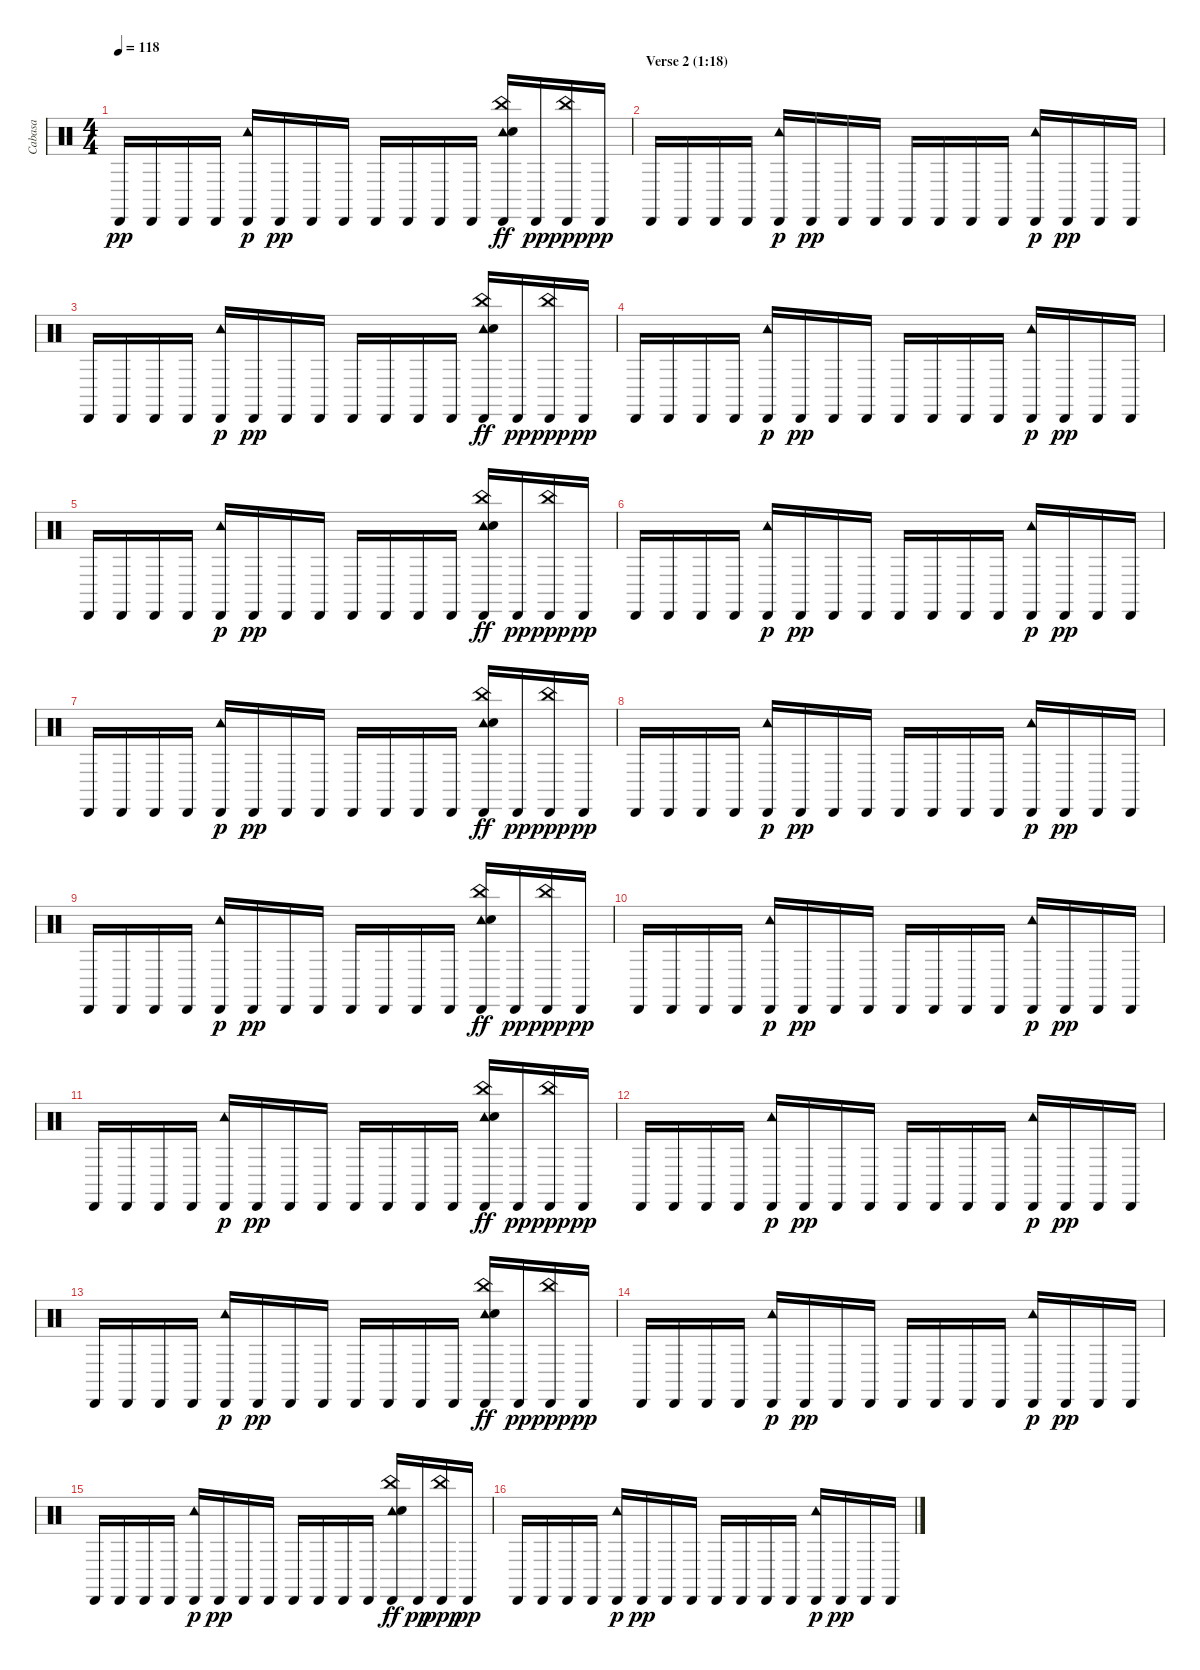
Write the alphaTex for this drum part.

\track ("Cabasa" "Cabasa") {instrument percussion}
\staff {score}
\articulation defaults
\ts (4 4)
\tempo 118
\clef neutral
\ks c "Cabasa (hit)".16{dy pp} "Cabasa (hit)".16 "Cabasa (hit)".16 "Cabasa (hit)".16
("Cabasa (hit)" "Tambourine (hit)").16{dy p} "Cabasa (hit)".16{dy pp} "Cabasa (hit)".16 "Cabasa (hit)".16 "Cabasa (hit)".16 "Cabasa (hit)".16 "Cabasa (hit)".16 "Cabasa (hit)".16 ("Cabasa (hit)" "Tambourine (hit)" "Hand Clap (hit)" "China (hit)").16{dy ff} "Cabasa (hit)".16{dy pp} ("Cabasa (hit)" "China (hit)").16{dy ppp} "Cabasa (hit)".16{dy pp} |
\section ("" "Verse 2 (1:18)")
"Cabasa (hit)".16 "Cabasa (hit)".16 "Cabasa (hit)".16 "Cabasa (hit)".16 ("Cabasa (hit)" "Tambourine (hit)").16{dy p} "Cabasa (hit)".16{dy pp} "Cabasa (hit)".16 "Cabasa (hit)".16 "Cabasa (hit)".16 "Cabasa (hit)".16 "Cabasa (hit)".16 "Cabasa (hit)".16 ("Cabasa (hit)" "Tambourine (hit)").16{dy p} "Cabasa (hit)".16{dy pp} "Cabasa (hit)".16 "Cabasa (hit)".16 |
"Cabasa (hit)".16 "Cabasa (hit)".16 "Cabasa (hit)".16 "Cabasa (hit)".16 ("Cabasa (hit)" "Tambourine (hit)").16{dy p} "Cabasa (hit)".16{dy pp} "Cabasa (hit)".16 "Cabasa (hit)".16 "Cabasa (hit)".16 "Cabasa (hit)".16 "Cabasa (hit)".16 "Cabasa (hit)".16 ("Cabasa (hit)" "Tambourine (hit)" "Hand Clap (hit)" "China (hit)").16{dy ff} "Cabasa (hit)".16{dy pp} ("Cabasa (hit)" "China (hit)").16{dy ppp} "Cabasa (hit)".16{dy pp} |
"Cabasa (hit)".16 "Cabasa (hit)".16 "Cabasa (hit)".16 "Cabasa (hit)".16 ("Cabasa (hit)" "Tambourine (hit)").16{dy p} "Cabasa (hit)".16{dy pp} "Cabasa (hit)".16 "Cabasa (hit)".16 "Cabasa (hit)".16 "Cabasa (hit)".16 "Cabasa (hit)".16 "Cabasa (hit)".16 ("Cabasa (hit)" "Tambourine (hit)").16{dy p} "Cabasa (hit)".16{dy pp} "Cabasa (hit)".16 "Cabasa (hit)".16 |
"Cabasa (hit)".16 "Cabasa (hit)".16 "Cabasa (hit)".16 "Cabasa (hit)".16 ("Cabasa (hit)" "Tambourine (hit)").16{dy p} "Cabasa (hit)".16{dy pp} "Cabasa (hit)".16 "Cabasa (hit)".16 "Cabasa (hit)".16 "Cabasa (hit)".16 "Cabasa (hit)".16 "Cabasa (hit)".16 ("Cabasa (hit)" "Tambourine (hit)" "Hand Clap (hit)" "China (hit)").16{dy ff} "Cabasa (hit)".16{dy pp} ("Cabasa (hit)" "China (hit)").16{dy ppp} "Cabasa (hit)".16{dy pp} |
"Cabasa (hit)".16 "Cabasa (hit)".16 "Cabasa (hit)".16 "Cabasa (hit)".16 ("Cabasa (hit)" "Tambourine (hit)").16{dy p} "Cabasa (hit)".16{dy pp} "Cabasa (hit)".16 "Cabasa (hit)".16 "Cabasa (hit)".16 "Cabasa (hit)".16 "Cabasa (hit)".16 "Cabasa (hit)".16 ("Cabasa (hit)" "Tambourine (hit)").16{dy p} "Cabasa (hit)".16{dy pp} "Cabasa (hit)".16 "Cabasa (hit)".16 |
"Cabasa (hit)".16 "Cabasa (hit)".16 "Cabasa (hit)".16 "Cabasa (hit)".16 ("Cabasa (hit)" "Tambourine (hit)").16{dy p} "Cabasa (hit)".16{dy pp} "Cabasa (hit)".16 "Cabasa (hit)".16 "Cabasa (hit)".16 "Cabasa (hit)".16 "Cabasa (hit)".16 "Cabasa (hit)".16 ("Cabasa (hit)" "Tambourine (hit)" "Hand Clap (hit)" "China (hit)").16{dy ff} "Cabasa (hit)".16{dy pp} ("Cabasa (hit)" "China (hit)").16{dy ppp} "Cabasa (hit)".16{dy pp} |
"Cabasa (hit)".16 "Cabasa (hit)".16 "Cabasa (hit)".16 "Cabasa (hit)".16 ("Cabasa (hit)" "Tambourine (hit)").16{dy p} "Cabasa (hit)".16{dy pp} "Cabasa (hit)".16 "Cabasa (hit)".16 "Cabasa (hit)".16 "Cabasa (hit)".16 "Cabasa (hit)".16 "Cabasa (hit)".16 ("Cabasa (hit)" "Tambourine (hit)").16{dy p} "Cabasa (hit)".16{dy pp} "Cabasa (hit)".16 "Cabasa (hit)".16 |
"Cabasa (hit)".16 "Cabasa (hit)".16 "Cabasa (hit)".16 "Cabasa (hit)".16 ("Cabasa (hit)" "Tambourine (hit)").16{dy p} "Cabasa (hit)".16{dy pp} "Cabasa (hit)".16 "Cabasa (hit)".16 "Cabasa (hit)".16 "Cabasa (hit)".16 "Cabasa (hit)".16 "Cabasa (hit)".16 ("Cabasa (hit)" "Tambourine (hit)" "Hand Clap (hit)" "China (hit)").16{dy ff} "Cabasa (hit)".16{dy pp} ("Cabasa (hit)" "China (hit)").16{dy ppp} "Cabasa (hit)".16{dy pp} |
"Cabasa (hit)".16 "Cabasa (hit)".16 "Cabasa (hit)".16 "Cabasa (hit)".16 ("Cabasa (hit)" "Tambourine (hit)").16{dy p} "Cabasa (hit)".16{dy pp} "Cabasa (hit)".16 "Cabasa (hit)".16 "Cabasa (hit)".16 "Cabasa (hit)".16 "Cabasa (hit)".16 "Cabasa (hit)".16 ("Cabasa (hit)" "Tambourine (hit)").16{dy p} "Cabasa (hit)".16{dy pp} "Cabasa (hit)".16 "Cabasa (hit)".16 |
"Cabasa (hit)".16 "Cabasa (hit)".16 "Cabasa (hit)".16 "Cabasa (hit)".16 ("Cabasa (hit)" "Tambourine (hit)").16{dy p} "Cabasa (hit)".16{dy pp} "Cabasa (hit)".16 "Cabasa (hit)".16 "Cabasa (hit)".16 "Cabasa (hit)".16 "Cabasa (hit)".16 "Cabasa (hit)".16 ("Cabasa (hit)" "Tambourine (hit)" "Hand Clap (hit)" "China (hit)").16{dy ff} "Cabasa (hit)".16{dy pp} ("Cabasa (hit)" "China (hit)").16{dy ppp} "Cabasa (hit)".16{dy pp} |
"Cabasa (hit)".16 "Cabasa (hit)".16 "Cabasa (hit)".16 "Cabasa (hit)".16 ("Cabasa (hit)" "Tambourine (hit)").16{dy p} "Cabasa (hit)".16{dy pp} "Cabasa (hit)".16 "Cabasa (hit)".16 "Cabasa (hit)".16 "Cabasa (hit)".16 "Cabasa (hit)".16 "Cabasa (hit)".16 ("Cabasa (hit)" "Tambourine (hit)").16{dy p} "Cabasa (hit)".16{dy pp} "Cabasa (hit)".16 "Cabasa (hit)".16 |
"Cabasa (hit)".16 "Cabasa (hit)".16 "Cabasa (hit)".16 "Cabasa (hit)".16 ("Cabasa (hit)" "Tambourine (hit)").16{dy p} "Cabasa (hit)".16{dy pp} "Cabasa (hit)".16 "Cabasa (hit)".16 "Cabasa (hit)".16 "Cabasa (hit)".16 "Cabasa (hit)".16 "Cabasa (hit)".16 ("Cabasa (hit)" "Tambourine (hit)" "Hand Clap (hit)" "China (hit)").16{dy ff} "Cabasa (hit)".16{dy pp} ("Cabasa (hit)" "China (hit)").16{dy ppp} "Cabasa (hit)".16{dy pp} |
"Cabasa (hit)".16 "Cabasa (hit)".16 "Cabasa (hit)".16 "Cabasa (hit)".16 ("Cabasa (hit)" "Tambourine (hit)").16{dy p} "Cabasa (hit)".16{dy pp} "Cabasa (hit)".16 "Cabasa (hit)".16 "Cabasa (hit)".16 "Cabasa (hit)".16 "Cabasa (hit)".16 "Cabasa (hit)".16 ("Cabasa (hit)" "Tambourine (hit)").16{dy p} "Cabasa (hit)".16{dy pp} "Cabasa (hit)".16 "Cabasa (hit)".16 |
"Cabasa (hit)".16 "Cabasa (hit)".16 "Cabasa (hit)".16 "Cabasa (hit)".16 ("Cabasa (hit)" "Tambourine (hit)").16{dy p} "Cabasa (hit)".16{dy pp} "Cabasa (hit)".16 "Cabasa (hit)".16 "Cabasa (hit)".16 "Cabasa (hit)".16 "Cabasa (hit)".16 "Cabasa (hit)".16 ("Cabasa (hit)" "Tambourine (hit)" "Hand Clap (hit)" "China (hit)").16{dy ff} "Cabasa (hit)".16{dy pp} ("Cabasa (hit)" "China (hit)").16{dy ppp} "Cabasa (hit)".16{dy pp} |
"Cabasa (hit)".16 "Cabasa (hit)".16 "Cabasa (hit)".16 "Cabasa (hit)".16 ("Cabasa (hit)" "Tambourine (hit)").16{dy p} "Cabasa (hit)".16{dy pp} "Cabasa (hit)".16 "Cabasa (hit)".16 "Cabasa (hit)".16 "Cabasa (hit)".16 "Cabasa (hit)".16 "Cabasa (hit)".16 ("Cabasa (hit)" "Tambourine (hit)").16{dy p} "Cabasa (hit)".16{dy pp} "Cabasa (hit)".16 "Cabasa (hit)".16
